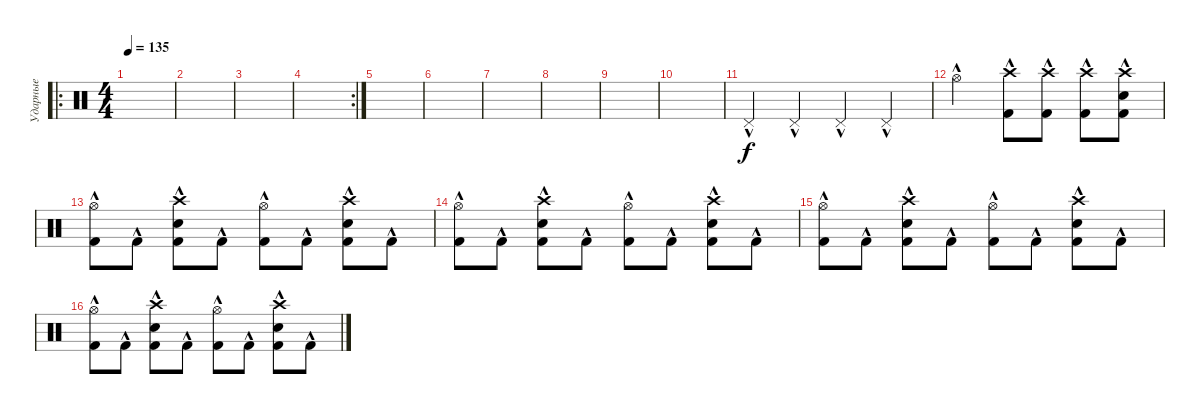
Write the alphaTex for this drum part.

\track ("Ударные" "Ударные") {instrument percussion}
\staff
\articulation defaults
\ro
\ts (4 4)
\tempo 135
\clef neutral
\ks c
|
|
|
\rc 2
|
|
|
|
|
|
|
"Pedal Hi-Hat (hit)"{hac}.4 "Pedal Hi-Hat (hit)"{hac}.4 "Pedal Hi-Hat (hit)"{hac}.4 "Pedal Hi-Hat (hit)"{hac}.4 |
"Hi-Hat (open)"{hac}.2 ("Crash high (hit)"{hac} "Kick (hit) 2"{hac}).8 ("Crash high (hit)"{hac} "Kick (hit) 2"{hac}).8 ("Crash high (hit)"{hac} "Kick (hit) 2"{hac}).8 ("Kick (hit) 2"{hac} "Crash high (hit)"{hac} "Electric Snare (hit)"{hac}).8 |
("Kick (hit) 2"{hac} "Hi-Hat (open)"{hac}).8 "Kick (hit) 2"{hac}.8 ("Kick (hit) 2"{hac} "Electric Snare (hit)"{hac} "Crash high (hit)"{hac}).8 "Kick (hit) 2"{hac}.8 ("Kick (hit) 2"{hac} "Hi-Hat (open)"{hac}).8 "Kick (hit) 2"{hac}.8 ("Kick (hit) 2"{hac} "Electric Snare (hit)"{hac} "Crash high (hit)"{hac}).8 "Kick (hit) 2"{hac}.8 |
("Kick (hit) 2"{hac} "Hi-Hat (open)"{hac}).8 "Kick (hit) 2"{hac}.8 ("Kick (hit) 2"{hac} "Electric Snare (hit)"{hac} "Crash high (hit)"{hac}).8 "Kick (hit) 2"{hac}.8 ("Kick (hit) 2"{hac} "Hi-Hat (open)"{hac}).8 "Kick (hit) 2"{hac}.8 ("Kick (hit) 2"{hac} "Electric Snare (hit)"{hac} "Crash high (hit)"{hac}).8 "Kick (hit) 2"{hac}.8 |
("Kick (hit) 2"{hac} "Hi-Hat (open)"{hac}).8 "Kick (hit) 2"{hac}.8 ("Kick (hit) 2"{hac} "Electric Snare (hit)"{hac} "Crash high (hit)"{hac}).8 "Kick (hit) 2"{hac}.8 ("Kick (hit) 2"{hac} "Hi-Hat (open)"{hac}).8 "Kick (hit) 2"{hac}.8 ("Kick (hit) 2"{hac} "Electric Snare (hit)"{hac} "Crash high (hit)"{hac}).8 "Kick (hit) 2"{hac}.8 |
("Kick (hit) 2"{hac} "Hi-Hat (open)"{hac}).8 "Kick (hit) 2"{hac}.8 ("Kick (hit) 2"{hac} "Electric Snare (hit)"{hac} "Crash high (hit)"{hac}).8 "Kick (hit) 2"{hac}.8 ("Kick (hit) 2"{hac} "Hi-Hat (open)"{hac}).8 "Kick (hit) 2"{hac}.8 ("Kick (hit) 2"{hac} "Electric Snare (hit)"{hac} "Crash high (hit)"{hac}).8 "Kick (hit) 2"{hac}.8
